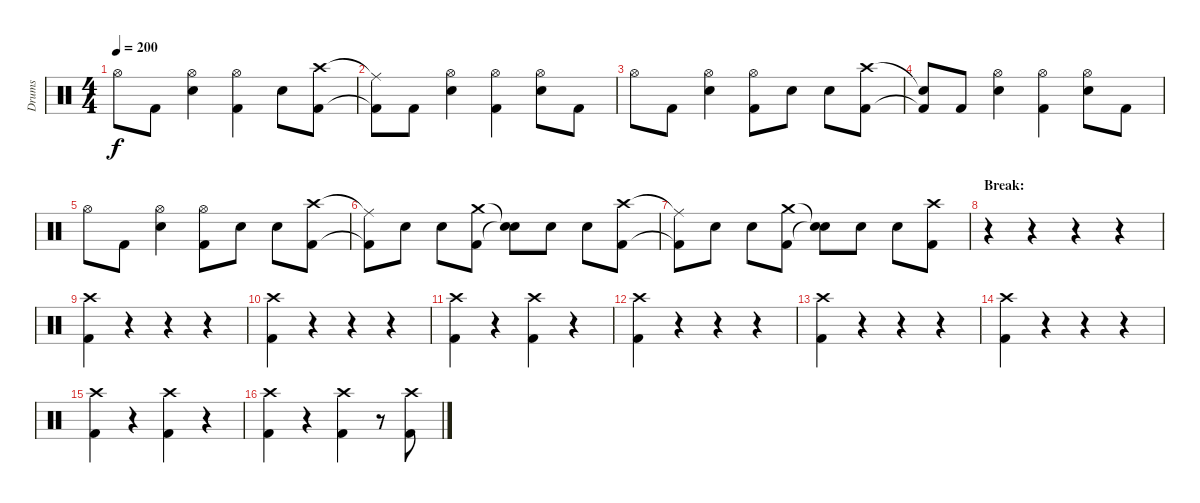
\track ("Drums" "Drums") {instrument percussion}
\staff {score}
\articulation defaults
\ts (4 4)
\tempo 200
\clef neutral
\ks c "Hi-Hat (open)".8{dy f} "Kick (hit) 2".8
("Hi-Hat (open)" "Electric Snare (hit)").4 ("Hi-Hat (open)" "Kick (hit) 2").4 "Electric Snare (hit)".8 ("Crash high (hit)" "Kick (hit) 2").8 |
("Ride (middle)"{t} "Kick (hit) 2"{t}).8 "Kick (hit) 2".8 ("Hi-Hat (open)" "Electric Snare (hit)").4 ("Hi-Hat (open)" "Kick (hit) 2").4 ("Hi-Hat (open)" "Electric Snare (hit)").8 "Kick (hit) 2".8 |
"Hi-Hat (open)".8 "Kick (hit) 2".8 ("Hi-Hat (open)" "Electric Snare (hit)").4 ("Hi-Hat (open)" "Kick (hit) 2").8 "Electric Snare (hit)".8 "Electric Snare (hit)".8 ("Crash high (hit)" "Kick (hit) 2").8 |
("Snare (hit)"{t} "Kick (hit) 2"{t}).8 "Kick (hit) 2".8 ("Hi-Hat (open)" "Electric Snare (hit)").4 ("Hi-Hat (open)" "Kick (hit) 2").4 ("Hi-Hat (open)" "Electric Snare (hit)").8 "Kick (hit) 2".8 |
"Hi-Hat (open)".8 "Kick (hit) 2".8 ("Hi-Hat (open)" "Electric Snare (hit)").4 ("Hi-Hat (open)" "Kick (hit) 2").8 "Electric Snare (hit)".8 "Electric Snare (hit)".8 ("Crash high (hit)" "Kick (hit) 2").8 |
("Ride (middle)"{t} "Kick (hit) 2"{t}).8 "Electric Snare (hit)".8 "Electric Snare (hit)".8 ("Crash medium (hit)" "Kick (hit) 2").8 ("Snare (hit)"{t} "Snare (hit)"{t}).8 "Electric Snare (hit)".8 "Electric Snare (hit)".8 ("Crash high (hit)" "Kick (hit) 2").8 |
("Ride (middle)"{t} "Kick (hit) 2"{t}).8 "Electric Snare (hit)".8 "Electric Snare (hit)".8 ("Crash medium (hit)" "Kick (hit) 2").8 ("Snare (hit)"{t} "Snare (hit)"{t}).8 "Electric Snare (hit)".8 "Electric Snare (hit)".8 ("Crash high (hit)" "Kick (hit) 2").8 |
\section ("" "Break:")
r.4 r.4 r.4 r.4 |
("Crash high (hit)" "Kick (hit) 2").4 r.4 r.4 r.4 |
("Crash high (hit)" "Kick (hit) 2").4 r.4 r.4 r.4 |
("Crash high (hit)" "Kick (hit) 2").4 r.4 ("Crash high (hit)" "Kick (hit) 2").4 r.4 |
("Crash high (hit)" "Kick (hit) 2").4 r.4 r.4 r.4 |
("Crash high (hit)" "Kick (hit) 2").4 r.4 r.4 r.4 |
("Crash high (hit)" "Kick (hit) 2").4 r.4 r.4 r.4 |
("Crash high (hit)" "Kick (hit) 2").4 r.4 ("Crash high (hit)" "Kick (hit) 2").4 r.4 |
("Crash high (hit)" "Kick (hit) 2").4 r.4 ("Crash high (hit)" "Kick (hit) 2").4 r.8 ("Crash high (hit)" "Kick (hit) 2").8
